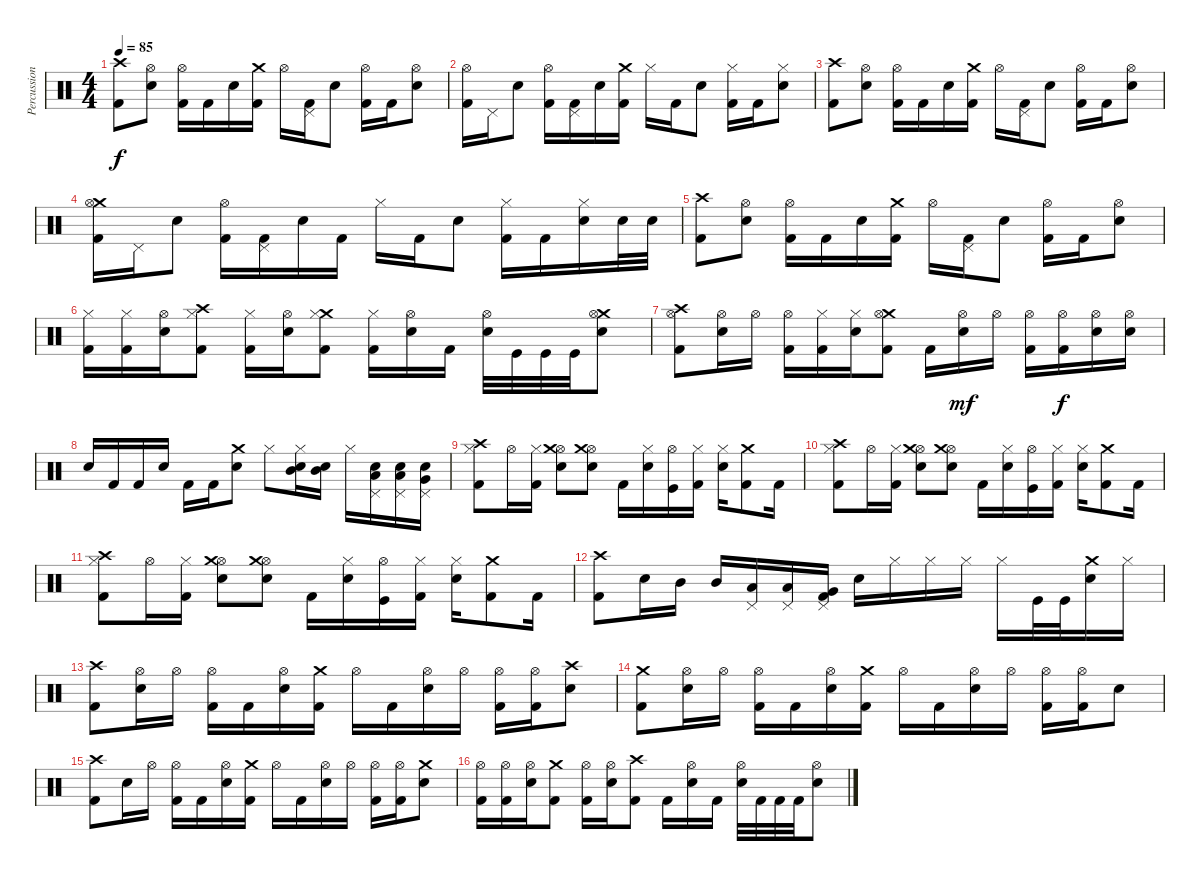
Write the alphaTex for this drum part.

\track ("Percussion" "Percussion") {instrument percussion}
\staff {score}
\articulation defaults
\ts (4 4)
\tempo 85
\clef neutral
\ks c
("Crash high (hit)" "Kick (hit) 2").8{dy f} ("Hi-Hat (open)" "Snare (hit) 2").8 ("Hi-Hat (open)" "Kick (hit) 2").16 "Kick (hit) 2".16 "Snare (hit) 2".16 ("Crash medium (hit)" "Kick (hit) 2").16 "Hi-Hat (open)".16 ("Pedal Hi-Hat (hit)" "Kick (hit) 2").16 "Snare (hit) 2".8 ("Hi-Hat (open)" "Kick (hit) 2").16 "Kick (hit) 2".16 ("Hi-Hat (open)" "Snare (hit) 2").8 |
("Hi-Hat (open)" "Kick (hit) 2").16 "Pedal Hi-Hat (hit)".16 "Snare (hit) 2".8 ("Hi-Hat (open)" "Kick (hit) 2").16 ("Pedal Hi-Hat (hit)" "Kick (hit) 2").16 "Snare (hit) 2".16 ("Crash medium (hit)" "Kick (hit) 2").16 "Hi-Hat (closed)".16 "Kick (hit) 2".16 "Snare (hit) 2".8 ("Hi-Hat (closed)" "Kick (hit) 2").16 "Kick (hit) 2".16 ("Hi-Hat (closed)" "Snare (hit) 2").8 |
("Crash high (hit)" "Kick (hit) 2").8 ("Hi-Hat (open)" "Snare (hit) 2").8 ("Hi-Hat (open)" "Kick (hit) 2").16 "Kick (hit) 2".16 "Snare (hit) 2".16 ("Crash medium (hit)" "Kick (hit) 2").16 "Hi-Hat (open)".16 ("Pedal Hi-Hat (hit)" "Kick (hit) 2").16 "Snare (hit) 2".8 ("Hi-Hat (open)" "Kick (hit) 2").16 "Kick (hit) 2".16 ("Hi-Hat (open)" "Snare (hit) 2").8 |
("Crash medium (hit)" "Hi-Hat (open)" "Kick (hit) 2").16 "Pedal Hi-Hat (hit)".16 "Snare (hit) 2".8 ("Hi-Hat (open)" "Kick (hit) 2").16 ("Pedal Hi-Hat (hit)" "Kick (hit) 2").16 "Snare (hit) 2".16 "Kick (hit) 2".16 "Hi-Hat (closed)".16 "Kick (hit) 2".16 "Snare (hit) 2".8 ("Hi-Hat (closed)" "Kick (hit) 2").16 "Kick (hit) 2".16 ("Hi-Hat (closed)" "Snare (hit) 2").16 "Snare (hit) 2".32 "Snare (hit) 2".32 |
("Crash high (hit)" "Kick (hit) 2").8 ("Hi-Hat (open)" "Snare (hit) 2").8 ("Hi-Hat (open)" "Kick (hit) 2").16 "Kick (hit) 2".16 "Snare (hit) 2".16 ("Crash medium (hit)" "Kick (hit) 2").16 "Hi-Hat (open)".16 ("Pedal Hi-Hat (hit)" "Kick (hit) 2").16 "Snare (hit) 2".8 ("Hi-Hat (open)" "Kick (hit) 2").16 "Kick (hit) 2".16 ("Hi-Hat (open)" "Snare (hit) 2").8 |
("Hi-Hat (closed)" "Kick (hit) 2").16 ("Hi-Hat (closed)" "Kick (hit) 2").16 ("Hi-Hat (open)" "Snare (hit) 2").16 ("Crash high (hit)" "Hi-Hat (closed)" "Kick (hit) 2").8 ("Hi-Hat (closed)" "Kick (hit) 2").16 ("Hi-Hat (open)" "Snare (hit) 2").16 ("Crash medium (hit)" "Hi-Hat (closed)" "Kick (hit) 2").8 ("Hi-Hat (closed)" "Kick (hit) 2").16 ("Hi-Hat (open)" "Snare (hit) 2").16 "Kick (hit) 2".16 ("Hi-Hat (open)" "Snare (hit) 2").32 "Kick (hit)".32 "Kick (hit)".32 "Kick (hit)".32 ("Crash medium (hit)" "Hi-Hat (open)" "Snare (hit) 2").8 |
("Hi-Hat (open)" "Kick (hit) 2" "Crash high (hit)").8 ("Hi-Hat (open)" "Snare (hit) 2").16 "Hi-Hat (open)".16 ("Hi-Hat (open)" "Kick (hit) 2").16 ("Hi-Hat (closed)" "Kick (hit) 2").16 ("Hi-Hat (closed)" "Snare (hit) 2").16 ("Crash medium (hit)" "Hi-Hat (open)" "Kick (hit) 2").8 "Kick (hit) 2".16 ("Hi-Hat (open)" "Snare (hit) 2").16{dy mf} "Hi-Hat (open)".16 ("Hi-Hat (open)" "Kick (hit) 2").16 ("Hi-Hat (open)" "Kick (hit) 2").16{dy f} ("Hi-Hat (open)" "Snare (hit) 2").16 ("Hi-Hat (open)" "Snare (hit) 2").16 |
"Snare (hit) 2".16 "Kick (hit) 2".16 "Kick (hit) 2".16 "Snare (hit) 2".16 "Kick (hit) 2".16 "Kick (hit) 2".16 ("Crash medium (hit)" "Snare (hit) 2").8 "Hi-Hat (closed)".8 ("Mid Tom (hit)" "Electric Snare (hit)" "Hi-Hat (closed)").16 ("Electric Snare (hit)" "Mid Tom (hit)").16 "Hi-Hat (closed)".16 ("Pedal Hi-Hat (hit)" "Electric Snare (hit)" "Low Tom (hit)").16 ("Pedal Hi-Hat (hit)" "Electric Snare (hit)" "Low Tom (hit)").16 ("Pedal Hi-Hat (hit)" "Electric Snare (hit)" "Very Low Tom (hit)").16 |
("Hi-Hat (closed)" "Kick (hit) 2" "Crash high (hit)").8 "Hi-Hat (open)".16 ("Kick (hit) 2" "Hi-Hat (closed)").16 ("Hi-Hat (open)" "Crash medium (hit)" "Snare (hit) 2").8 ("Hi-Hat (open)" "Crash medium (hit)" "Snare (hit) 2").8 "Kick (hit) 2".16 ("Snare (hit) 2" "Hi-Hat (closed)").16 ("Kick (hit)" "Hi-Hat (open)").16 ("Hi-Hat (closed)" "Kick (hit) 2").16 ("Hi-Hat (closed)" "Electric Snare (hit)").16 ("Crash medium (hit)" "Kick (hit) 2").8 "Kick (hit) 2".16 |
("Hi-Hat (closed)" "Kick (hit) 2" "Crash high (hit)").8 "Hi-Hat (open)".16 ("Kick (hit) 2" "Hi-Hat (closed)").16 ("Hi-Hat (open)" "Crash medium (hit)" "Snare (hit) 2").8 ("Hi-Hat (open)" "Crash medium (hit)" "Snare (hit) 2").8 "Kick (hit) 2".16 ("Snare (hit) 2" "Hi-Hat (closed)").16 ("Kick (hit)" "Hi-Hat (open)").16 ("Hi-Hat (closed)" "Kick (hit) 2").16 ("Hi-Hat (closed)" "Electric Snare (hit)").16 ("Crash medium (hit)" "Kick (hit) 2").8 "Kick (hit) 2".16 |
("Hi-Hat (closed)" "Kick (hit) 2" "Crash high (hit)").8 "Hi-Hat (open)".16 ("Kick (hit) 2" "Hi-Hat (closed)").16 ("Hi-Hat (open)" "Crash medium (hit)" "Snare (hit) 2").8 ("Hi-Hat (open)" "Crash medium (hit)" "Snare (hit) 2").8 "Kick (hit) 2".16 ("Snare (hit) 2" "Hi-Hat (closed)").16 ("Kick (hit)" "Hi-Hat (open)").16 ("Hi-Hat (closed)" "Kick (hit) 2").16 ("Hi-Hat (closed)" "Electric Snare (hit)").16 ("Crash medium (hit)" "Kick (hit) 2").8 "Kick (hit) 2".16 |
("Crash high (hit)" "Kick (hit) 2").8 "Snare (hit) 2".16 "Mid Tom (hit)".16 "Mid Tom (hit)".16 ("Pedal Hi-Hat (hit)" "Low Tom (hit)").16 ("Low Tom (hit)" "Pedal Hi-Hat (hit)").16 ("Pedal Hi-Hat (hit)" "Kick (hit) 2" "Very Low Tom (hit)").16 "Snare (hit) 2".16 "Hi-Hat (closed)".16 "Hi-Hat (closed)".16 "Hi-Hat (closed)".16 "Hi-Hat (closed)".16 "Kick (hit)".32 "Kick (hit)".32 ("Snare (hit) 2" "Crash medium (hit)").16 "Hi-Hat (closed)".16 |
("Crash high (hit)" "Kick (hit) 2").8 ("Hi-Hat (open)" "Snare (hit) 2").16 "Hi-Hat (open)".16 ("Hi-Hat (open)" "Kick (hit) 2").16 "Kick (hit) 2".16 ("Hi-Hat (open)" "Snare (hit) 2").16 ("Crash medium (hit)" "Kick (hit) 2").16 "Hi-Hat (open)".16 "Kick (hit) 2".16 ("Hi-Hat (open)" "Snare (hit) 2").16 "Hi-Hat (open)".16 ("Hi-Hat (open)" "Kick (hit) 2").16 ("Hi-Hat (open)" "Kick (hit) 2").16 ("Crash high (hit)" "Snare (hit) 2").8 |
("Crash medium (hit)" "Kick (hit) 2").8 ("Hi-Hat (open)" "Snare (hit) 2").16 "Hi-Hat (open)".16 ("Hi-Hat (open)" "Kick (hit) 2").16 "Kick (hit) 2".16 ("Hi-Hat (open)" "Snare (hit) 2").16 ("Crash medium (hit)" "Kick (hit) 2").16 "Hi-Hat (open)".16 "Kick (hit) 2".16 ("Hi-Hat (open)" "Snare (hit) 2").16 "Hi-Hat (open)".16 ("Hi-Hat (open)" "Kick (hit) 2").16 ("Kick (hit) 2" "Hi-Hat (open)").16 "Snare (hit) 2".8 |
("Crash high (hit)" "Kick (hit) 2").8 "Snare (hit) 2".16 "Hi-Hat (open)".16 ("Hi-Hat (open)" "Kick (hit) 2").16 "Kick (hit) 2".16 ("Hi-Hat (open)" "Snare (hit) 2").16 ("Crash medium (hit)" "Kick (hit) 2").16 "Hi-Hat (open)".16 "Kick (hit) 2".16 ("Hi-Hat (open)" "Snare (hit) 2").16 "Hi-Hat (open)".16 ("Hi-Hat (open)" "Kick (hit) 2").16 ("Hi-Hat (open)" "Kick (hit) 2").16 ("Crash medium (hit)" "Snare (hit) 2").8 |
("Hi-Hat (open)" "Kick (hit) 2").16 ("Hi-Hat (open)" "Kick (hit) 2").16 ("Hi-Hat (open)" "Snare (hit) 2").16 ("Crash medium (hit)" "Kick (hit) 2").8 ("Kick (hit) 2" "Hi-Hat (open)").16 ("Snare (hit) 2" "Hi-Hat (open)").16 ("Kick (hit) 2" "Crash high (hit)").8 "Kick (hit) 2".16 ("Hi-Hat (open)" "Snare (hit) 2").16 "Kick (hit) 2".16 ("Hi-Hat (open)" "Snare (hit) 2").32 "Kick (hit) 2".32 "Kick (hit) 2".32 "Kick (hit) 2".32 ("Hi-Hat (open)" "Snare (hit) 2").8
